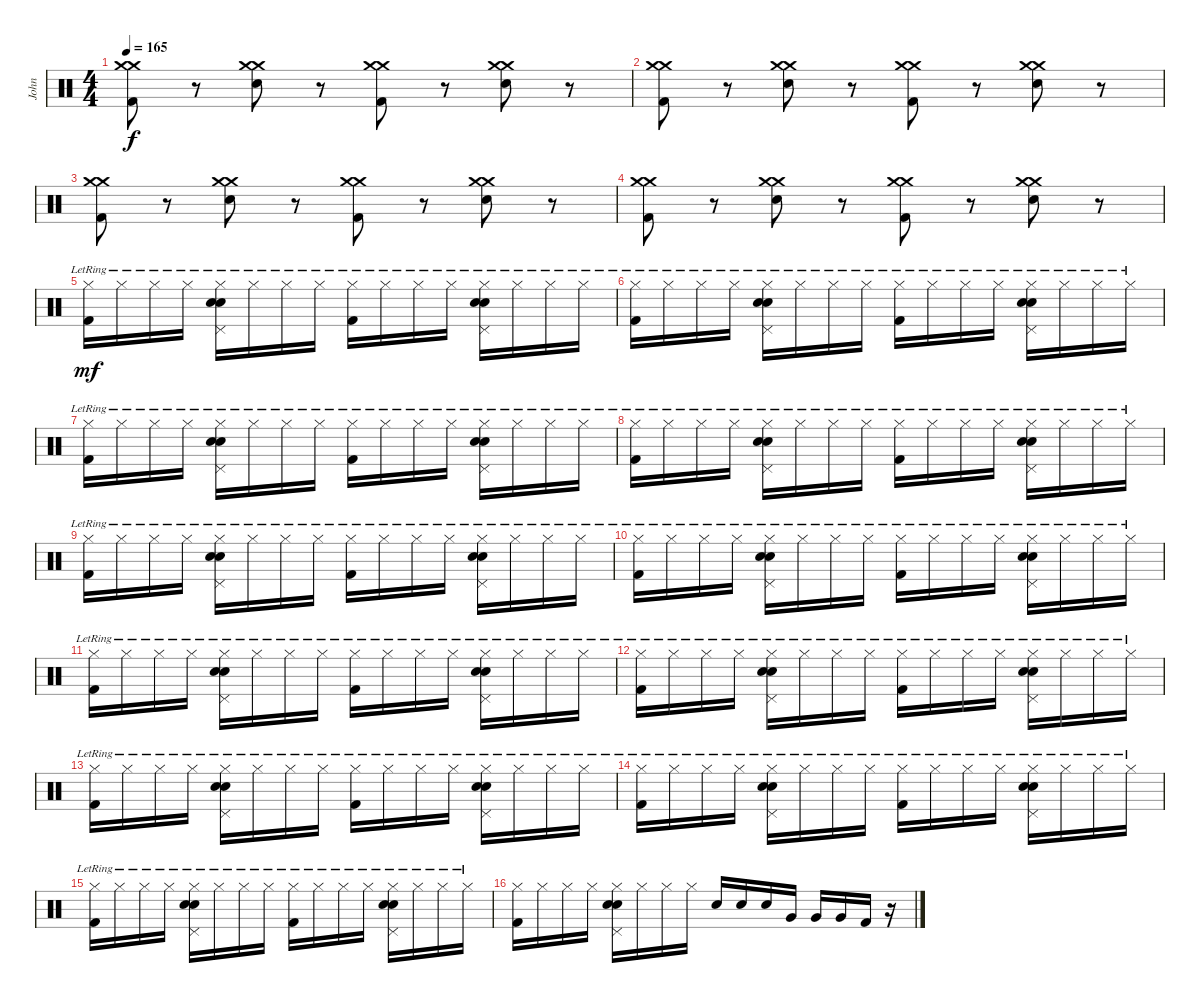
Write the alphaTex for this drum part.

\track ("John" "John") {instrument percussion}
\staff {score}
\articulation defaults
\ts (4 4)
\tempo 165
\clef neutral
\ks c
("Crash medium (hit)" "Crash medium (hit)" "Kick (hit) 2").8{dy f} r.8 ("Crash medium (hit)" "Crash medium (hit)" "Electric Snare (hit)").8 r.8 ("Crash medium (hit)" "Crash medium (hit)" "Kick (hit) 2").8 r.8 ("Crash medium (hit)" "Crash medium (hit)" "Electric Snare (hit)").8 r.8 |
("Crash medium (hit)" "Crash medium (hit)" "Kick (hit) 2").8 r.8 ("Crash medium (hit)" "Crash medium (hit)" "Electric Snare (hit)").8 r.8 ("Crash medium (hit)" "Crash medium (hit)" "Kick (hit) 2").8 r.8 ("Crash medium (hit)" "Crash medium (hit)" "Electric Snare (hit)").8 r.8 |
("Crash medium (hit)" "Crash medium (hit)" "Kick (hit) 2").8 r.8 ("Crash medium (hit)" "Crash medium (hit)" "Electric Snare (hit)").8 r.8 ("Crash medium (hit)" "Crash medium (hit)" "Kick (hit) 2").8 r.8 ("Crash medium (hit)" "Crash medium (hit)" "Electric Snare (hit)").8 r.8 |
("Crash medium (hit)" "Crash medium (hit)" "Kick (hit) 2").8 r.8 ("Crash medium (hit)" "Crash medium (hit)" "Electric Snare (hit)").8 r.8 ("Crash medium (hit)" "Crash medium (hit)" "Kick (hit) 2").8 r.8 ("Crash medium (hit)" "Crash medium (hit)" "Electric Snare (hit)").8 r.8 |
("Hi-Hat (closed)"{lr} "Kick (hit) 2").16{dy mf} "Hi-Hat (closed)"{lr}.16 "Hi-Hat (closed)"{lr}.16 "Hi-Hat (closed)"{lr}.16 ("Hi-Hat (closed)"{lr} "Pedal Hi-Hat (hit)" "Electric Snare (hit)" "Electric Snare (hit)").16 "Hi-Hat (closed)"{lr}.16 "Hi-Hat (closed)"{lr}.16 "Hi-Hat (closed)"{lr}.16 ("Hi-Hat (closed)"{lr} "Kick (hit) 2").16 "Hi-Hat (closed)"{lr}.16 "Hi-Hat (closed)"{lr}.16 "Hi-Hat (closed)"{lr}.16 ("Hi-Hat (closed)"{lr} "Pedal Hi-Hat (hit)" "Electric Snare (hit)" "Electric Snare (hit)").16 "Hi-Hat (closed)"{lr}.16 "Hi-Hat (closed)"{lr}.16 "Hi-Hat (closed)"{lr}.16 |
("Hi-Hat (closed)"{lr} "Kick (hit) 2").16 "Hi-Hat (closed)"{lr}.16 "Hi-Hat (closed)"{lr}.16 "Hi-Hat (closed)"{lr}.16 ("Hi-Hat (closed)"{lr} "Pedal Hi-Hat (hit)" "Electric Snare (hit)" "Electric Snare (hit)").16 "Hi-Hat (closed)"{lr}.16 "Hi-Hat (closed)"{lr}.16 "Hi-Hat (closed)"{lr}.16 ("Hi-Hat (closed)"{lr} "Kick (hit) 2").16 "Hi-Hat (closed)"{lr}.16 "Hi-Hat (closed)"{lr}.16 "Hi-Hat (closed)"{lr}.16 ("Hi-Hat (closed)"{lr} "Pedal Hi-Hat (hit)" "Electric Snare (hit)" "Electric Snare (hit)").16 "Hi-Hat (closed)"{lr}.16 "Hi-Hat (closed)"{lr}.16 "Hi-Hat (closed)"{lr}.16 |
("Hi-Hat (closed)"{lr} "Kick (hit) 2").16 "Hi-Hat (closed)"{lr}.16 "Hi-Hat (closed)"{lr}.16 "Hi-Hat (closed)"{lr}.16 ("Hi-Hat (closed)"{lr} "Pedal Hi-Hat (hit)" "Electric Snare (hit)" "Electric Snare (hit)").16 "Hi-Hat (closed)"{lr}.16 "Hi-Hat (closed)"{lr}.16 "Hi-Hat (closed)"{lr}.16 ("Hi-Hat (closed)"{lr} "Kick (hit) 2").16 "Hi-Hat (closed)"{lr}.16 "Hi-Hat (closed)"{lr}.16 "Hi-Hat (closed)"{lr}.16 ("Hi-Hat (closed)"{lr} "Pedal Hi-Hat (hit)" "Electric Snare (hit)" "Electric Snare (hit)").16 "Hi-Hat (closed)"{lr}.16 "Hi-Hat (closed)"{lr}.16 "Hi-Hat (closed)"{lr}.16 |
("Hi-Hat (closed)"{lr} "Kick (hit) 2").16 "Hi-Hat (closed)"{lr}.16 "Hi-Hat (closed)"{lr}.16 "Hi-Hat (closed)"{lr}.16 ("Hi-Hat (closed)"{lr} "Pedal Hi-Hat (hit)" "Electric Snare (hit)" "Electric Snare (hit)").16 "Hi-Hat (closed)"{lr}.16 "Hi-Hat (closed)"{lr}.16 "Hi-Hat (closed)"{lr}.16 ("Hi-Hat (closed)"{lr} "Kick (hit) 2").16 "Hi-Hat (closed)"{lr}.16 "Hi-Hat (closed)"{lr}.16 "Hi-Hat (closed)"{lr}.16 ("Hi-Hat (closed)"{lr} "Pedal Hi-Hat (hit)" "Electric Snare (hit)" "Electric Snare (hit)").16 "Hi-Hat (closed)"{lr}.16 "Hi-Hat (closed)"{lr}.16 "Hi-Hat (closed)"{lr}.16 |
("Hi-Hat (closed)"{lr} "Kick (hit) 2").16 "Hi-Hat (closed)"{lr}.16 "Hi-Hat (closed)"{lr}.16 "Hi-Hat (closed)"{lr}.16 ("Hi-Hat (closed)"{lr} "Pedal Hi-Hat (hit)" "Electric Snare (hit)" "Electric Snare (hit)").16 "Hi-Hat (closed)"{lr}.16 "Hi-Hat (closed)"{lr}.16 "Hi-Hat (closed)"{lr}.16 ("Hi-Hat (closed)"{lr} "Kick (hit) 2").16 "Hi-Hat (closed)"{lr}.16 "Hi-Hat (closed)"{lr}.16 "Hi-Hat (closed)"{lr}.16 ("Hi-Hat (closed)"{lr} "Pedal Hi-Hat (hit)" "Electric Snare (hit)" "Electric Snare (hit)").16 "Hi-Hat (closed)"{lr}.16 "Hi-Hat (closed)"{lr}.16 "Hi-Hat (closed)"{lr}.16 |
("Hi-Hat (closed)"{lr} "Kick (hit) 2").16 "Hi-Hat (closed)"{lr}.16 "Hi-Hat (closed)"{lr}.16 "Hi-Hat (closed)"{lr}.16 ("Hi-Hat (closed)"{lr} "Pedal Hi-Hat (hit)" "Electric Snare (hit)" "Electric Snare (hit)").16 "Hi-Hat (closed)"{lr}.16 "Hi-Hat (closed)"{lr}.16 "Hi-Hat (closed)"{lr}.16 ("Hi-Hat (closed)"{lr} "Kick (hit) 2").16 "Hi-Hat (closed)"{lr}.16 "Hi-Hat (closed)"{lr}.16 "Hi-Hat (closed)"{lr}.16 ("Hi-Hat (closed)"{lr} "Pedal Hi-Hat (hit)" "Electric Snare (hit)" "Electric Snare (hit)").16 "Hi-Hat (closed)"{lr}.16 "Hi-Hat (closed)"{lr}.16 "Hi-Hat (closed)"{lr}.16 |
("Hi-Hat (closed)"{lr} "Kick (hit) 2").16 "Hi-Hat (closed)"{lr}.16 "Hi-Hat (closed)"{lr}.16 "Hi-Hat (closed)"{lr}.16 ("Hi-Hat (closed)"{lr} "Pedal Hi-Hat (hit)" "Electric Snare (hit)" "Electric Snare (hit)").16 "Hi-Hat (closed)"{lr}.16 "Hi-Hat (closed)"{lr}.16 "Hi-Hat (closed)"{lr}.16 ("Hi-Hat (closed)"{lr} "Kick (hit) 2").16 "Hi-Hat (closed)"{lr}.16 "Hi-Hat (closed)"{lr}.16 "Hi-Hat (closed)"{lr}.16 ("Hi-Hat (closed)"{lr} "Pedal Hi-Hat (hit)" "Electric Snare (hit)" "Electric Snare (hit)").16 "Hi-Hat (closed)"{lr}.16 "Hi-Hat (closed)"{lr}.16 "Hi-Hat (closed)"{lr}.16 |
("Hi-Hat (closed)"{lr} "Kick (hit) 2").16 "Hi-Hat (closed)"{lr}.16 "Hi-Hat (closed)"{lr}.16 "Hi-Hat (closed)"{lr}.16 ("Hi-Hat (closed)"{lr} "Pedal Hi-Hat (hit)" "Electric Snare (hit)" "Electric Snare (hit)").16 "Hi-Hat (closed)"{lr}.16 "Hi-Hat (closed)"{lr}.16 "Hi-Hat (closed)"{lr}.16 ("Hi-Hat (closed)"{lr} "Kick (hit) 2").16 "Hi-Hat (closed)"{lr}.16 "Hi-Hat (closed)"{lr}.16 "Hi-Hat (closed)"{lr}.16 ("Hi-Hat (closed)"{lr} "Pedal Hi-Hat (hit)" "Electric Snare (hit)" "Electric Snare (hit)").16 "Hi-Hat (closed)"{lr}.16 "Hi-Hat (closed)"{lr}.16 "Hi-Hat (closed)"{lr}.16 |
("Hi-Hat (closed)"{lr} "Kick (hit) 2").16 "Hi-Hat (closed)"{lr}.16 "Hi-Hat (closed)"{lr}.16 "Hi-Hat (closed)"{lr}.16 ("Hi-Hat (closed)"{lr} "Pedal Hi-Hat (hit)" "Electric Snare (hit)" "Electric Snare (hit)").16 "Hi-Hat (closed)"{lr}.16 "Hi-Hat (closed)"{lr}.16 "Hi-Hat (closed)"{lr}.16 ("Hi-Hat (closed)"{lr} "Kick (hit) 2").16 "Hi-Hat (closed)"{lr}.16 "Hi-Hat (closed)"{lr}.16 "Hi-Hat (closed)"{lr}.16 ("Hi-Hat (closed)"{lr} "Pedal Hi-Hat (hit)" "Electric Snare (hit)" "Electric Snare (hit)").16 "Hi-Hat (closed)"{lr}.16 "Hi-Hat (closed)"{lr}.16 "Hi-Hat (closed)"{lr}.16 |
("Hi-Hat (closed)"{lr} "Kick (hit) 2").16 "Hi-Hat (closed)"{lr}.16 "Hi-Hat (closed)"{lr}.16 "Hi-Hat (closed)"{lr}.16 ("Hi-Hat (closed)"{lr} "Pedal Hi-Hat (hit)" "Electric Snare (hit)" "Electric Snare (hit)").16 "Hi-Hat (closed)"{lr}.16 "Hi-Hat (closed)"{lr}.16 "Hi-Hat (closed)"{lr}.16 ("Hi-Hat (closed)"{lr} "Kick (hit) 2").16 "Hi-Hat (closed)"{lr}.16 "Hi-Hat (closed)"{lr}.16 "Hi-Hat (closed)"{lr}.16 ("Hi-Hat (closed)"{lr} "Pedal Hi-Hat (hit)" "Electric Snare (hit)" "Electric Snare (hit)").16 "Hi-Hat (closed)"{lr}.16 "Hi-Hat (closed)"{lr}.16 "Hi-Hat (closed)"{lr}.16 |
("Hi-Hat (closed)"{lr} "Kick (hit) 2").16 "Hi-Hat (closed)"{lr}.16 "Hi-Hat (closed)"{lr}.16 "Hi-Hat (closed)"{lr}.16 ("Hi-Hat (closed)"{lr} "Pedal Hi-Hat (hit)" "Electric Snare (hit)" "Electric Snare (hit)").16 "Hi-Hat (closed)"{lr}.16 "Hi-Hat (closed)"{lr}.16 "Hi-Hat (closed)"{lr}.16 ("Hi-Hat (closed)"{lr} "Kick (hit) 2").16 "Hi-Hat (closed)"{lr}.16 "Hi-Hat (closed)"{lr}.16 "Hi-Hat (closed)"{lr}.16 ("Hi-Hat (closed)"{lr} "Pedal Hi-Hat (hit)" "Electric Snare (hit)" "Electric Snare (hit)").16 "Hi-Hat (closed)"{lr}.16 "Hi-Hat (closed)"{lr}.16 "Hi-Hat (closed)"{lr}.16 |
("Hi-Hat (closed)" "Kick (hit) 2").16 "Hi-Hat (closed)".16 "Hi-Hat (closed)".16 "Hi-Hat (closed)".16 ("Hi-Hat (closed)" "Pedal Hi-Hat (hit)" "Electric Snare (hit)" "Electric Snare (hit)").16 "Hi-Hat (closed)".16 "Hi-Hat (closed)".16 "Hi-Hat (closed)".16 "Electric Snare (hit)".16 "Electric Snare (hit)".16 "Electric Snare (hit)".16 "Very Low Tom (hit)".16 "Very Low Tom (hit)".16 "Very Low Tom (hit)".16 "Kick (hit) 2".16 r.16
